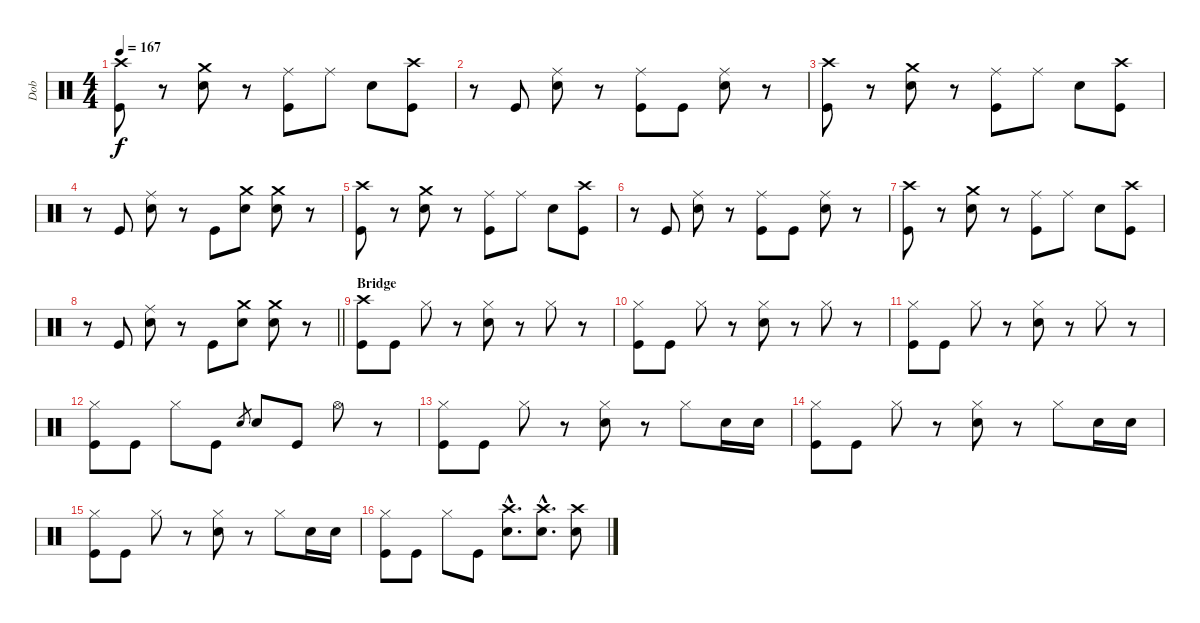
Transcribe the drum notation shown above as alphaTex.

\track ("Dob" "Dob") {instrument percussion}
\staff {score}
\articulation defaults
\ts (4 4)
\tempo 167
\clef neutral
\ks c
("Crash high (hit)" "Kick (hit)").8{dy f} r.8 ("Crash medium (hit)" "Snare (hit) 2").8 r.8 ("Ride (middle)" "Kick (hit)").8 "Ride (middle)".8 "Snare (hit) 2".8 ("Crash high (hit)" "Kick (hit)").8 |
r.8 "Kick (hit)".8 ("Ride (middle)" "Snare (hit) 2").8 r.8 ("Ride (middle)" "Kick (hit)").8 "Kick (hit)".8 ("Ride (middle)" "Snare (hit) 2").8 r.8 |
("Crash high (hit)" "Kick (hit)").8 r.8 ("Crash medium (hit)" "Snare (hit) 2").8 r.8 ("Ride (middle)" "Kick (hit)").8 "Ride (middle)".8 "Snare (hit) 2".8 ("Crash high (hit)" "Kick (hit)").8 |
r.8 "Kick (hit)".8 ("Ride (middle)" "Snare (hit) 2").8 r.8 "Kick (hit)".8 ("Crash medium (hit)" "Snare (hit) 2").8 ("Crash medium (hit)" "Snare (hit) 2").8 r.8 |
("Crash high (hit)" "Kick (hit)").8 r.8 ("Crash medium (hit)" "Snare (hit) 2").8 r.8 ("Ride (middle)" "Kick (hit)").8 "Ride (middle)".8 "Snare (hit) 2".8 ("Crash high (hit)" "Kick (hit)").8 |
r.8 "Kick (hit)".8 ("Ride (middle)" "Snare (hit) 2").8 r.8 ("Ride (middle)" "Kick (hit)").8 "Kick (hit)".8 ("Ride (middle)" "Snare (hit) 2").8 r.8 |
("Crash high (hit)" "Kick (hit)").8 r.8 ("Crash medium (hit)" "Snare (hit) 2").8 r.8 ("Ride (middle)" "Kick (hit)").8 "Ride (middle)".8 "Snare (hit) 2".8 ("Crash high (hit)" "Kick (hit)").8 |
\barLineRight lightlight
r.8 "Kick (hit)".8 ("Ride (middle)" "Snare (hit) 2").8 r.8 "Kick (hit)".8 ("Crash medium (hit)" "Snare (hit) 2").8 ("Crash medium (hit)" "Snare (hit) 2").8 r.8 |
\section ("" "Bridge")
("Crash high (hit)" "Kick (hit)").8 "Kick (hit)".8 "Hi-Hat (closed)".8 r.8 ("Hi-Hat (closed)" "Snare (hit) 2").8 r.8 "Hi-Hat (closed)".8 r.8 |
("Hi-Hat (closed)" "Kick (hit)").8 "Kick (hit)".8 "Hi-Hat (closed)".8 r.8 ("Hi-Hat (closed)" "Snare (hit) 2").8 r.8 "Hi-Hat (closed)".8 r.8 |
("Hi-Hat (closed)" "Kick (hit)").8 "Kick (hit)".8 "Hi-Hat (closed)".8 r.8 ("Hi-Hat (closed)" "Snare (hit) 2").8 r.8 "Hi-Hat (closed)".8 r.8 |
("Hi-Hat (closed)" "Kick (hit)").8 "Kick (hit)".8 "Hi-Hat (closed)".8 "Kick (hit)".8 "Snare (hit) 2".8{gr} "Snare (hit) 2".8 "Kick (hit)".8 "Hi-Hat (open)".8 r.8 |
("Hi-Hat (closed)" "Kick (hit)").8 "Kick (hit)".8 "Hi-Hat (closed)".8 r.8 ("Hi-Hat (closed)" "Snare (hit) 2").8 r.8 "Hi-Hat (closed)".8 "Snare (hit) 2".16 "Snare (hit) 2".16 |
("Hi-Hat (closed)" "Kick (hit)").8 "Kick (hit)".8 "Hi-Hat (closed)".8 r.8 ("Hi-Hat (closed)" "Snare (hit) 2").8 r.8 "Hi-Hat (closed)".8 "Snare (hit) 2".16 "Snare (hit) 2".16 |
("Hi-Hat (closed)" "Kick (hit)").8 "Kick (hit)".8 "Hi-Hat (closed)".8 r.8 ("Hi-Hat (closed)" "Snare (hit) 2").8 r.8 "Hi-Hat (closed)".8 "Snare (hit) 2".16 "Snare (hit) 2".16 |
("Hi-Hat (closed)" "Kick (hit)").8 "Kick (hit)".8 "Hi-Hat (closed)".8 "Kick (hit)".8 ("Crash high (hit)"{hac} "Snare (hit) 2"{hac}).8{d} ("Crash high (hit)"{hac} "Snare (hit) 2"{hac}).8{d} ("Crash high (hit)" "Snare (hit) 2").8
